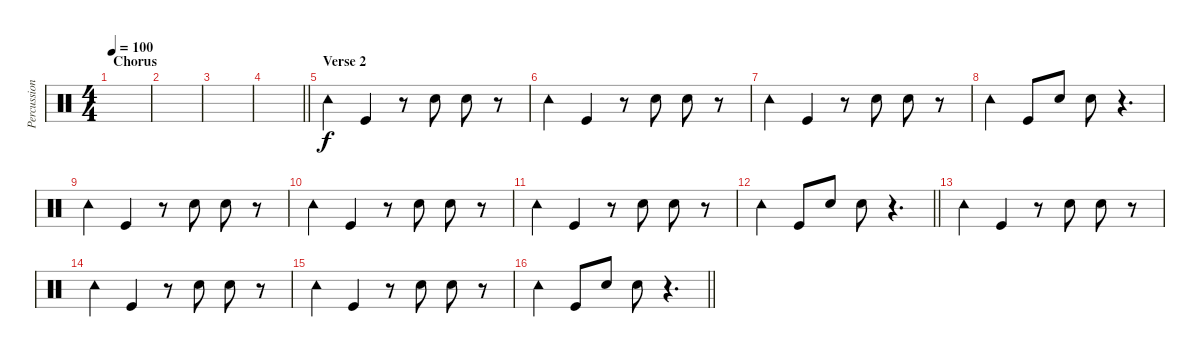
\track ("Percussion" "Percussion") {instrument percussion}
\staff {score}
\articulation defaults
\ts (4 4)
\section ("" "Chorus")
\tempo 100
\clef neutral
\ks c
|
|
|
\barLineRight lightlight
|
\section ("" "Verse 2")
"Tambourine (hit)".4 "Kick (hit)".4 r.8 "Hand Clap (hit)".8 "Hand Clap (hit)".8 r.8 |
"Tambourine (hit)".4 "Kick (hit)".4 r.8 "Hand Clap (hit)".8 "Hand Clap (hit)".8 r.8 |
"Tambourine (hit)".4 "Kick (hit)".4 r.8 "Hand Clap (hit)".8 "Hand Clap (hit)".8 r.8 |
"Tambourine (hit)".4 "Kick (hit)".8 "Hand Clap (hit)".8 "Hand Clap (hit)".8 r.4{d} |
"Tambourine (hit)".4 "Kick (hit)".4 r.8 "Hand Clap (hit)".8 "Hand Clap (hit)".8 r.8 |
"Tambourine (hit)".4 "Kick (hit)".4 r.8 "Hand Clap (hit)".8 "Hand Clap (hit)".8 r.8 |
"Tambourine (hit)".4 "Kick (hit)".4 r.8 "Hand Clap (hit)".8 "Hand Clap (hit)".8 r.8 |
\barLineRight lightlight "Tambourine (hit)".4 "Kick (hit)".8 "Hand Clap (hit)".8 "Hand Clap (hit)".8
r.4{d} |
"Tambourine (hit)".4 "Kick (hit)".4 r.8 "Hand Clap (hit)".8 "Hand Clap (hit)".8 r.8 |
"Tambourine (hit)".4 "Kick (hit)".4 r.8 "Hand Clap (hit)".8 "Hand Clap (hit)".8 r.8 |
"Tambourine (hit)".4 "Kick (hit)".4 r.8 "Hand Clap (hit)".8 "Hand Clap (hit)".8 r.8 |
\barLineRight lightlight "Tambourine (hit)".4 "Kick (hit)".8 "Hand Clap (hit)".8 "Hand Clap (hit)".8
r.4{d}
